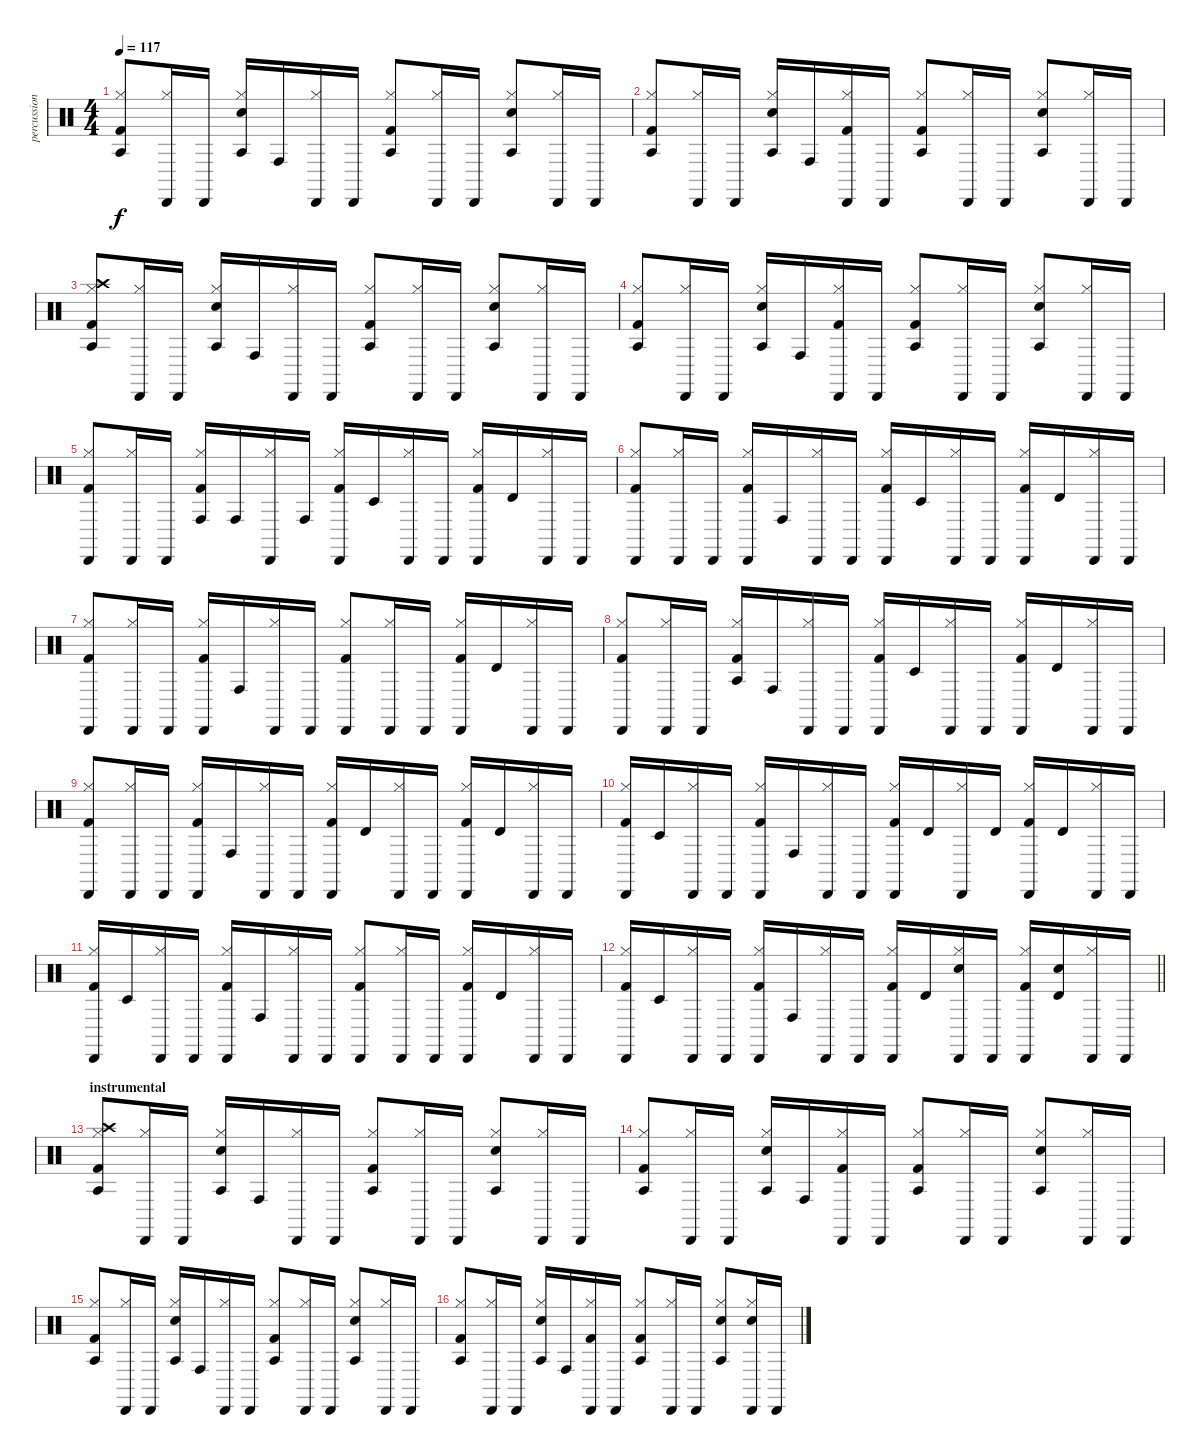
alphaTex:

\track ("percussion" "percussion") {instrument percussion}
\staff {score}
\articulation defaults
\ts (4 4)
\tempo 117
\clef neutral
\ks c
("Agogo tow (hit)" "Hi-Hat (closed)" "Kick (hit) 2").8{dy f} ("Cabasa (hit)" "Hi-Hat (closed)").16 "Cabasa (hit)".16 ("Agogo tow (hit)" "Snare (hit) 2" "Hi-Hat (closed)").16 "Conga high (hit)".16 ("Cabasa (hit)" "Hi-Hat (closed)").16 "Cabasa (hit)".16 ("Agogo tow (hit)" "Hi-Hat (closed)" "Kick (hit) 2").8 ("Cabasa (hit)" "Hi-Hat (closed)").16 "Cabasa (hit)".16 ("Agogo tow (hit)" "Snare (hit) 2" "Hi-Hat (closed)").8 ("Cabasa (hit)" "Hi-Hat (closed)").16 "Cabasa (hit)".16 |
("Agogo tow (hit)" "Hi-Hat (closed)" "Kick (hit) 2").8 ("Cabasa (hit)" "Hi-Hat (closed)").16 "Cabasa (hit)".16 ("Agogo tow (hit)" "Snare (hit) 2" "Hi-Hat (closed)").16 "Conga high (hit)".16 ("Cabasa (hit)" "Hi-Hat (closed)" "Kick (hit) 2").16 "Cabasa (hit)".16 ("Agogo tow (hit)" "Hi-Hat (closed)" "Kick (hit) 2").8 ("Cabasa (hit)" "Hi-Hat (closed)").16 "Cabasa (hit)".16 ("Agogo tow (hit)" "Snare (hit) 2" "Hi-Hat (closed)").8 ("Cabasa (hit)" "Hi-Hat (closed)").16 "Cabasa (hit)".16 |
("Crash high (hit)" "Agogo tow (hit)" "Hi-Hat (closed)" "Kick (hit) 2").8 ("Cabasa (hit)" "Hi-Hat (closed)").16 "Cabasa (hit)".16 ("Agogo tow (hit)" "Snare (hit) 2" "Hi-Hat (closed)").16 "Conga high (hit)".16 ("Cabasa (hit)" "Hi-Hat (closed)").16 "Cabasa (hit)".16 ("Agogo tow (hit)" "Hi-Hat (closed)" "Kick (hit) 2").8 ("Cabasa (hit)" "Hi-Hat (closed)").16 "Cabasa (hit)".16 ("Agogo tow (hit)" "Snare (hit) 2" "Hi-Hat (closed)").8 ("Cabasa (hit)" "Hi-Hat (closed)").16 "Cabasa (hit)".16 |
("Agogo tow (hit)" "Hi-Hat (closed)" "Kick (hit) 2").8 ("Cabasa (hit)" "Hi-Hat (closed)").16 "Cabasa (hit)".16 ("Agogo tow (hit)" "Snare (hit) 2" "Hi-Hat (closed)").16 "Conga high (hit)".16 ("Cabasa (hit)" "Hi-Hat (closed)" "Kick (hit) 2").16 "Cabasa (hit)".16 ("Agogo tow (hit)" "Hi-Hat (closed)" "Kick (hit) 2").8 ("Cabasa (hit)" "Hi-Hat (closed)").16 "Cabasa (hit)".16 ("Agogo tow (hit)" "Snare (hit) 2" "Hi-Hat (closed)").8 ("Cabasa (hit)" "Hi-Hat (closed)").16 "Cabasa (hit)".16 |
("Cabasa (hit)" "Hi-Hat (closed)" "Kick (hit) 2").8 ("Cabasa (hit)" "Hi-Hat (closed)").16 "Cabasa (hit)".16 ("Conga high (hit)" "Hi-Hat (closed)" "Kick (hit) 2").16 "Conga high (hit)".16 ("Cabasa (hit)" "Hi-Hat (closed)").16 "Conga high (hit)".16 ("Cabasa (hit)" "Hi-Hat (closed)" "Kick (hit) 2").16 "Timbale low (hit)".16 ("Cabasa (hit)" "Hi-Hat (closed)").16 "Cabasa (hit)".16 ("Cabasa (hit)" "Hi-Hat (closed)" "Kick (hit) 2").16 "Timbale high (hit)".16 ("Cabasa (hit)" "Hi-Hat (closed)").16 "Cabasa (hit)".16 |
("Cabasa (hit)" "Hi-Hat (closed)" "Kick (hit) 2").8 ("Cabasa (hit)" "Hi-Hat (closed)").16 "Cabasa (hit)".16 ("Cabasa (hit)" "Hi-Hat (closed)" "Kick (hit) 2").16 "Conga high (hit)".16 ("Cabasa (hit)" "Hi-Hat (closed)").16 "Cabasa (hit)".16 ("Cabasa (hit)" "Hi-Hat (closed)" "Kick (hit) 2").16 "Timbale low (hit)".16 ("Cabasa (hit)" "Hi-Hat (closed)").16 "Cabasa (hit)".16 ("Cabasa (hit)" "Hi-Hat (closed)" "Kick (hit) 2").16 "Timbale high (hit)".16 ("Cabasa (hit)" "Hi-Hat (closed)").16 "Cabasa (hit)".16 |
("Cabasa (hit)" "Hi-Hat (closed)" "Kick (hit) 2").8 ("Cabasa (hit)" "Hi-Hat (closed)").16 "Cabasa (hit)".16 ("Cabasa (hit)" "Hi-Hat (closed)" "Kick (hit) 2").16 "Conga high (hit)".16 ("Cabasa (hit)" "Hi-Hat (closed)").16 "Cabasa (hit)".16 ("Cabasa (hit)" "Hi-Hat (closed)" "Kick (hit) 2").8 ("Cabasa (hit)" "Hi-Hat (closed)").16 "Cabasa (hit)".16 ("Cabasa (hit)" "Hi-Hat (closed)" "Kick (hit) 2").16 "Timbale high (hit)".16 ("Cabasa (hit)" "Hi-Hat (closed)").16 "Cabasa (hit)".16 |
("Cabasa (hit)" "Hi-Hat (closed)" "Kick (hit) 2").8 ("Cabasa (hit)" "Hi-Hat (closed)").16 "Cabasa (hit)".16 ("Agogo tow (hit)" "Hi-Hat (closed)" "Kick (hit) 2").16 "Conga high (hit)".16 ("Cabasa (hit)" "Hi-Hat (closed)").16 "Cabasa (hit)".16 ("Cabasa (hit)" "Hi-Hat (closed)" "Kick (hit) 2").16 "Timbale low (hit)".16 ("Cabasa (hit)" "Hi-Hat (closed)").16 "Cabasa (hit)".16 ("Cabasa (hit)" "Hi-Hat (closed)" "Kick (hit) 2").16 "Timbale high (hit)".16 ("Cabasa (hit)" "Hi-Hat (closed)").16 "Cabasa (hit)".16 |
("Cabasa (hit)" "Hi-Hat (closed)" "Kick (hit) 2").8 ("Cabasa (hit)" "Hi-Hat (closed)").16 "Cabasa (hit)".16 ("Cabasa (hit)" "Hi-Hat (closed)" "Kick (hit) 2").16 "Conga high (hit)".16 ("Cabasa (hit)" "Hi-Hat (closed)").16 "Cabasa (hit)".16 ("Cabasa (hit)" "Hi-Hat (closed)" "Kick (hit) 2").16 "Timbale high (hit)".16 ("Cabasa (hit)" "Hi-Hat (closed)").16 "Cabasa (hit)".16 ("Cabasa (hit)" "Hi-Hat (closed)" "Kick (hit) 2").16 "Timbale high (hit)".16 ("Cabasa (hit)" "Hi-Hat (closed)").16 "Cabasa (hit)".16 |
("Cabasa (hit)" "Hi-Hat (closed)" "Kick (hit) 2").16 "Timbale low (hit)".16 ("Cabasa (hit)" "Hi-Hat (closed)").16 "Cabasa (hit)".16 ("Cabasa (hit)" "Hi-Hat (closed)" "Kick (hit) 2").16 "Conga high (hit)".16 ("Cabasa (hit)" "Hi-Hat (closed)").16 "Cabasa (hit)".16 ("Cabasa (hit)" "Hi-Hat (closed)" "Kick (hit) 2").16 "Timbale high (hit)".16 ("Cabasa (hit)" "Hi-Hat (closed)").16 "Timbale high (hit)".16 ("Cabasa (hit)" "Hi-Hat (closed)" "Kick (hit) 2").16 "Timbale high (hit)".16 ("Cabasa (hit)" "Hi-Hat (closed)").16 "Cabasa (hit)".16 |
("Cabasa (hit)" "Hi-Hat (closed)" "Kick (hit) 2").16 "Timbale low (hit)".16 ("Cabasa (hit)" "Hi-Hat (closed)").16 "Cabasa (hit)".16 ("Cabasa (hit)" "Hi-Hat (closed)" "Kick (hit) 2").16 "Conga high (hit)".16 ("Cabasa (hit)" "Hi-Hat (closed)").16 "Cabasa (hit)".16 ("Cabasa (hit)" "Hi-Hat (closed)" "Kick (hit) 2").8 ("Cabasa (hit)" "Hi-Hat (closed)").16 "Cabasa (hit)".16 ("Cabasa (hit)" "Hi-Hat (closed)" "Kick (hit) 2").16 "Timbale high (hit)".16 ("Cabasa (hit)" "Hi-Hat (closed)").16 "Cabasa (hit)".16 |
\barLineRight lightlight
("Cabasa (hit)" "Hi-Hat (closed)" "Kick (hit) 2").16 "Timbale low (hit)".16 ("Cabasa (hit)" "Hi-Hat (closed)").16 "Cabasa (hit)".16 ("Cabasa (hit)" "Hi-Hat (closed)" "Kick (hit) 2").16 "Conga high (hit)".16 ("Cabasa (hit)" "Hi-Hat (closed)").16 "Cabasa (hit)".16 ("Cabasa (hit)" "Hi-Hat (closed)" "Kick (hit) 2").16 "Timbale high (hit)".16 ("Cabasa (hit)" "Snare (hit) 2" "Hi-Hat (closed)").16 "Cabasa (hit)".16 ("Cabasa (hit)" "Hi-Hat (closed)" "Kick (hit) 2").16 ("Timbale high (hit)" "Snare (hit) 2").16 ("Cabasa (hit)" "Hi-Hat (closed)").16 "Cabasa (hit)".16 |
\section ("" "instrumental")
("Crash high (hit)" "Agogo tow (hit)" "Hi-Hat (closed)" "Kick (hit) 2").8 ("Cabasa (hit)" "Hi-Hat (closed)").16 "Cabasa (hit)".16 ("Agogo tow (hit)" "Snare (hit) 2" "Hi-Hat (closed)").16 "Conga high (hit)".16 ("Cabasa (hit)" "Hi-Hat (closed)").16 "Cabasa (hit)".16 ("Agogo tow (hit)" "Hi-Hat (closed)" "Kick (hit) 2").8 ("Cabasa (hit)" "Hi-Hat (closed)").16 "Cabasa (hit)".16 ("Agogo tow (hit)" "Snare (hit) 2" "Hi-Hat (closed)").8 ("Cabasa (hit)" "Hi-Hat (closed)").16 "Cabasa (hit)".16 |
("Agogo tow (hit)" "Hi-Hat (closed)" "Kick (hit) 2").8 ("Cabasa (hit)" "Hi-Hat (closed)").16 "Cabasa (hit)".16 ("Agogo tow (hit)" "Snare (hit) 2" "Hi-Hat (closed)").16 "Conga high (hit)".16 ("Cabasa (hit)" "Hi-Hat (closed)" "Kick (hit) 2").16 "Cabasa (hit)".16 ("Agogo tow (hit)" "Hi-Hat (closed)" "Kick (hit) 2").8 ("Cabasa (hit)" "Hi-Hat (closed)").16 "Cabasa (hit)".16 ("Agogo tow (hit)" "Snare (hit) 2" "Hi-Hat (closed)").8 ("Cabasa (hit)" "Hi-Hat (closed)").16 "Cabasa (hit)".16 |
("Agogo tow (hit)" "Hi-Hat (closed)" "Kick (hit) 2").8 ("Cabasa (hit)" "Hi-Hat (closed)").16 "Cabasa (hit)".16 ("Agogo tow (hit)" "Snare (hit) 2" "Hi-Hat (closed)").16 "Conga high (hit)".16 ("Cabasa (hit)" "Hi-Hat (closed)").16 "Cabasa (hit)".16 ("Agogo tow (hit)" "Hi-Hat (closed)" "Kick (hit) 2").8 ("Cabasa (hit)" "Hi-Hat (closed)").16 "Cabasa (hit)".16 ("Agogo tow (hit)" "Snare (hit) 2" "Hi-Hat (closed)").8 ("Cabasa (hit)" "Hi-Hat (closed)").16 "Cabasa (hit)".16 |
("Agogo tow (hit)" "Hi-Hat (closed)" "Kick (hit) 2").8 ("Cabasa (hit)" "Hi-Hat (closed)").16 "Cabasa (hit)".16 ("Agogo tow (hit)" "Snare (hit) 2" "Hi-Hat (closed)").16 "Conga high (hit)".16 ("Cabasa (hit)" "Hi-Hat (closed)" "Kick (hit) 2").16 "Cabasa (hit)".16 ("Agogo tow (hit)" "Hi-Hat (closed)" "Kick (hit) 2").8 ("Cabasa (hit)" "Hi-Hat (closed)").16 "Cabasa (hit)".16 ("Agogo tow (hit)" "Snare (hit) 2" "Hi-Hat (closed)").8 ("Cabasa (hit)" "Snare (hit) 2" "Hi-Hat (closed)").16 "Cabasa (hit)".16
